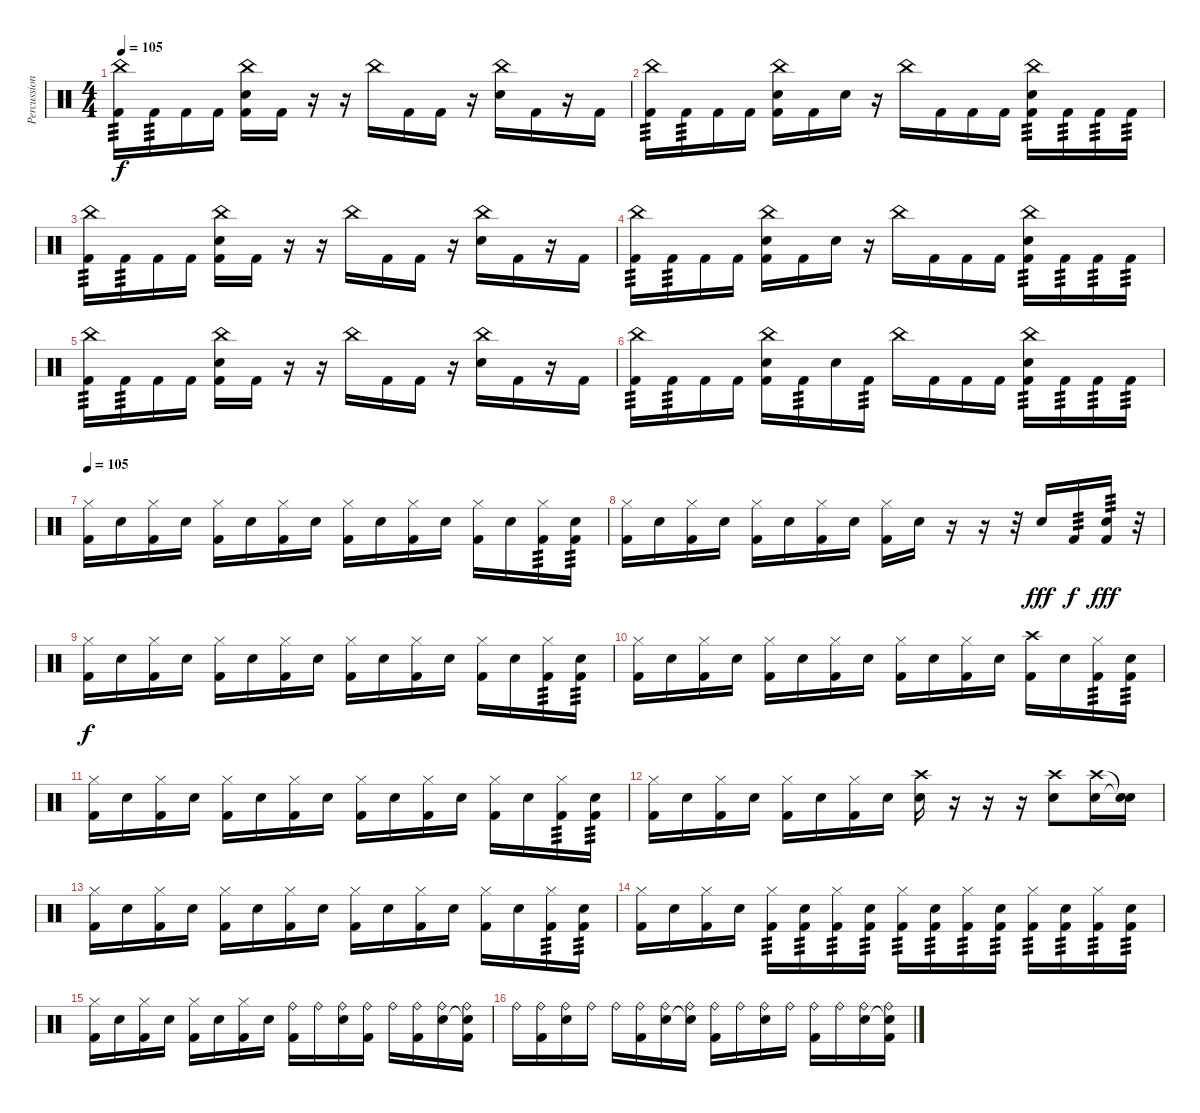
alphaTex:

\track ("Percussion" "Percussion") {instrument percussion}
\staff {score}
\articulation defaults
\ts (4 4)
\tempo 105
\clef neutral
\ks c
("China (hit)" "Kick (hit) 2").16{tp 3 dy f} "Kick (hit) 2".16{tp 3} "Kick (hit) 2".16 "Kick (hit) 2".16 ("China (hit)" "Electric Snare (hit)" "Kick (hit) 2").16 "Kick (hit) 2".16 r.16 r.16 "China (hit)".16 "Kick (hit) 2".16 "Kick (hit) 2".16 r.16 ("China (hit)" "Electric Snare (hit)").16 "Kick (hit) 2".16 r.16 "Kick (hit) 2".16 |
("China (hit)" "Kick (hit) 2").16{tp 3} "Kick (hit) 2".16{tp 3} "Kick (hit) 2".16 "Kick (hit) 2".16 ("China (hit)" "Electric Snare (hit)" "Kick (hit) 2").16 "Kick (hit) 2".16 "Electric Snare (hit)".16 r.16 "China (hit)".16 "Kick (hit) 2".16 "Kick (hit) 2".16 "Kick (hit) 2".16 ("China (hit)" "Electric Snare (hit)" "Kick (hit) 2").16{tp 3} "Kick (hit) 2".16{tp 3} "Kick (hit) 2".16{tp 3} "Kick (hit) 2".16{tp 3} |
("China (hit)" "Kick (hit) 2").16{tp 3} "Kick (hit) 2".16{tp 3} "Kick (hit) 2".16 "Kick (hit) 2".16 ("China (hit)" "Electric Snare (hit)" "Kick (hit) 2").16 "Kick (hit) 2".16 r.16 r.16 "China (hit)".16 "Kick (hit) 2".16 "Kick (hit) 2".16 r.16 ("China (hit)" "Electric Snare (hit)").16 "Kick (hit) 2".16 r.16 "Kick (hit) 2".16 |
("China (hit)" "Kick (hit) 2").16{tp 3} "Kick (hit) 2".16{tp 3} "Kick (hit) 2".16 "Kick (hit) 2".16 ("China (hit)" "Electric Snare (hit)" "Kick (hit) 2").16 "Kick (hit) 2".16 "Electric Snare (hit)".16 r.16 "China (hit)".16 "Kick (hit) 2".16 "Kick (hit) 2".16 "Kick (hit) 2".16 ("China (hit)" "Electric Snare (hit)" "Kick (hit) 2").16{tp 3} "Kick (hit) 2".16{tp 3} "Kick (hit) 2".16{tp 3} "Kick (hit) 2".16{tp 3} |
("China (hit)" "Kick (hit) 2").16{tp 3} "Kick (hit) 2".16{tp 3} "Kick (hit) 2".16 "Kick (hit) 2".16 ("China (hit)" "Electric Snare (hit)" "Kick (hit) 2").16 "Kick (hit) 2".16 r.16 r.16 "China (hit)".16 "Kick (hit) 2".16 "Kick (hit) 2".16 r.16 ("China (hit)" "Electric Snare (hit)").16 "Kick (hit) 2".16 r.16 "Kick (hit) 2".16 |
("China (hit)" "Kick (hit) 2").16{tp 3} "Kick (hit) 2".16{tp 3} "Kick (hit) 2".16 "Kick (hit) 2".16 ("China (hit)" "Electric Snare (hit)" "Kick (hit) 2").16 "Kick (hit) 2".16{tp 3} "Electric Snare (hit)".16 "Kick (hit) 2".16{tp 3} "China (hit)".16 "Kick (hit) 2".16 "Kick (hit) 2".16 "Kick (hit) 2".16 ("China (hit)" "Electric Snare (hit)" "Kick (hit) 2").16{tp 3} "Kick (hit) 2".16{tp 3} "Kick (hit) 2".16{tp 3} "Kick (hit) 2".16{tp 3} |
\tempo 105
("Hi-Hat (closed)" "Kick (hit) 2").16 "Snare (hit) 2".16 ("Hi-Hat (closed)" "Kick (hit) 2").16 "Snare (hit) 2".16 ("Hi-Hat (closed)" "Kick (hit) 2").16 "Snare (hit) 2".16 ("Hi-Hat (closed)" "Kick (hit) 2").16 "Snare (hit) 2".16 ("Hi-Hat (closed)" "Kick (hit) 2").16 "Snare (hit) 2".16 ("Hi-Hat (closed)" "Kick (hit) 2").16 "Snare (hit) 2".16 ("Hi-Hat (closed)" "Kick (hit) 2").16 "Snare (hit) 2".16 ("Hi-Hat (closed)" "Kick (hit) 2").16{tp 3} ("Snare (hit) 2" "Kick (hit) 2").16{tp 3} |
("Hi-Hat (closed)" "Kick (hit) 2").16 "Snare (hit) 2".16 ("Hi-Hat (closed)" "Kick (hit) 2").16 "Snare (hit) 2".16 ("Hi-Hat (closed)" "Kick (hit) 2").16 "Snare (hit) 2".16 ("Hi-Hat (closed)" "Kick (hit) 2").16 "Snare (hit) 2".16 ("Hi-Hat (closed)" "Kick (hit) 2").16 "Snare (hit) 2".16 r.16 r.16 r.32 "Snare (hit) 2".16{dy fff} "Kick (hit) 2".16{tp 3 dy f} ("Snare (hit) 2" "Kick (hit) 2").16{tp 3 dy fff} r.32 |
("Hi-Hat (closed)" "Kick (hit) 2").16{dy f} "Snare (hit) 2".16 ("Hi-Hat (closed)" "Kick (hit) 2").16 "Snare (hit) 2".16 ("Hi-Hat (closed)" "Kick (hit) 2").16 "Snare (hit) 2".16 ("Hi-Hat (closed)" "Kick (hit) 2").16 "Snare (hit) 2".16 ("Hi-Hat (closed)" "Kick (hit) 2").16 "Snare (hit) 2".16 ("Hi-Hat (closed)" "Kick (hit) 2").16 "Snare (hit) 2".16 ("Hi-Hat (closed)" "Kick (hit) 2").16 "Snare (hit) 2".16 ("Hi-Hat (closed)" "Kick (hit) 2").16{tp 3} ("Snare (hit) 2" "Kick (hit) 2").16{tp 3} |
("Hi-Hat (closed)" "Kick (hit) 2").16 "Snare (hit) 2".16 ("Hi-Hat (closed)" "Kick (hit) 2").16 "Snare (hit) 2".16 ("Hi-Hat (closed)" "Kick (hit) 2").16 "Snare (hit) 2".16 ("Hi-Hat (closed)" "Kick (hit) 2").16 "Snare (hit) 2".16 ("Hi-Hat (closed)" "Kick (hit) 2").16 "Snare (hit) 2".16 ("Hi-Hat (closed)" "Kick (hit) 2").16 "Snare (hit) 2".16 ("Crash high (hit)" "Kick (hit) 2").16 "Snare (hit) 2".16 ("Hi-Hat (closed)" "Kick (hit) 2").16{tp 3} ("Snare (hit) 2" "Kick (hit) 2").16{tp 3} |
("Hi-Hat (closed)" "Kick (hit) 2").16 "Snare (hit) 2".16 ("Hi-Hat (closed)" "Kick (hit) 2").16 "Snare (hit) 2".16 ("Hi-Hat (closed)" "Kick (hit) 2").16 "Snare (hit) 2".16 ("Hi-Hat (closed)" "Kick (hit) 2").16 "Snare (hit) 2".16 ("Hi-Hat (closed)" "Kick (hit) 2").16 "Snare (hit) 2".16 ("Hi-Hat (closed)" "Kick (hit) 2").16 "Snare (hit) 2".16 ("Hi-Hat (closed)" "Kick (hit) 2").16 "Snare (hit) 2".16 ("Hi-Hat (closed)" "Kick (hit) 2").16{tp 3} ("Snare (hit) 2" "Kick (hit) 2").16{tp 3} |
("Hi-Hat (closed)" "Kick (hit) 2").16 "Snare (hit) 2".16 ("Hi-Hat (closed)" "Kick (hit) 2").16 "Snare (hit) 2".16 ("Hi-Hat (closed)" "Kick (hit) 2").16 "Snare (hit) 2".16 ("Hi-Hat (closed)" "Kick (hit) 2").16 "Snare (hit) 2".16 ("Crash high (hit)" "Snare (hit) 2").16 r.16 r.16 r.16 ("Crash high (hit)" "Snare (hit) 2").8 ("Crash high (hit)" "Snare (hit) 2").16 ("Snare (hit)"{t} "Snare (hit)"{t}).16 |
("Hi-Hat (closed)" "Kick (hit) 2").16 "Snare (hit) 2".16 ("Hi-Hat (closed)" "Kick (hit) 2").16 "Snare (hit) 2".16 ("Hi-Hat (closed)" "Kick (hit) 2").16 "Snare (hit) 2".16 ("Hi-Hat (closed)" "Kick (hit) 2").16 "Snare (hit) 2".16 ("Hi-Hat (closed)" "Kick (hit) 2").16 "Snare (hit) 2".16 ("Hi-Hat (closed)" "Kick (hit) 2").16 "Snare (hit) 2".16 ("Hi-Hat (closed)" "Kick (hit) 2").16 "Snare (hit) 2".16 ("Hi-Hat (closed)" "Kick (hit) 2").16{tp 3} ("Snare (hit) 2" "Kick (hit) 2").16{tp 3} |
("Hi-Hat (closed)" "Kick (hit) 2").16 "Snare (hit) 2".16 ("Hi-Hat (closed)" "Kick (hit) 2").16 "Snare (hit) 2".16 ("Hi-Hat (closed)" "Kick (hit) 2").16{tp 3} ("Snare (hit) 2" "Kick (hit) 2").16{tp 3} ("Hi-Hat (closed)" "Kick (hit) 2").16{tp 3} ("Snare (hit) 2" "Kick (hit) 2").16{tp 3} ("Hi-Hat (closed)" "Kick (hit) 2").16{tp 3} ("Snare (hit) 2" "Kick (hit) 2").16{tp 3} ("Hi-Hat (closed)" "Kick (hit) 2").16{tp 3} ("Snare (hit) 2" "Kick (hit) 2").16{tp 3} ("Hi-Hat (closed)" "Kick (hit) 2").16{tp 3} ("Snare (hit) 2" "Kick (hit) 2").16{tp 3} ("Hi-Hat (closed)" "Kick (hit) 2").16{tp 3} ("Snare (hit) 2" "Kick (hit) 2").16{tp 3} |
("Hi-Hat (closed)" "Kick (hit) 2").16 "Snare (hit) 2".16 ("Hi-Hat (closed)" "Kick (hit) 2").16 "Snare (hit) 2".16 ("Hi-Hat (closed)" "Kick (hit) 2").16 "Snare (hit) 2".16 ("Hi-Hat (closed)" "Kick (hit) 2").16 "Snare (hit) 2".16 ("Ride (bell)" "Kick (hit) 2").16 "Ride (bell)".16 ("Ride (bell)" "Snare (hit) 2").16 ("Ride (bell)" "Kick (hit) 2").16 "Ride (bell)".16 ("Ride (bell)" "Kick (hit) 2").16 ("Ride (bell)" "Snare (hit) 2").16 ("Ride (bell)" "Snare (hit)"{t} "Kick (hit) 2").16 |
"Ride (bell)".16 ("Ride (bell)" "Kick (hit) 2").16 ("Ride (bell)" "Snare (hit) 2").16 "Ride (bell)".16 "Ride (bell)".16 ("Ride (bell)" "Kick (hit) 2").16 ("Ride (bell)" "Snare (hit) 2").16 ("Ride (bell)" "Snare (hit)"{t}).16 ("Ride (bell)" "Kick (hit) 2").16 "Ride (bell)".16 ("Ride (bell)" "Snare (hit) 2").16 "Ride (bell)".16 ("Ride (bell)" "Kick (hit) 2").16 "Ride (bell)".16 ("Ride (bell)" "Snare (hit) 2").16 ("Ride (bell)" "Snare (hit)"{t} "Kick (hit) 2").16
